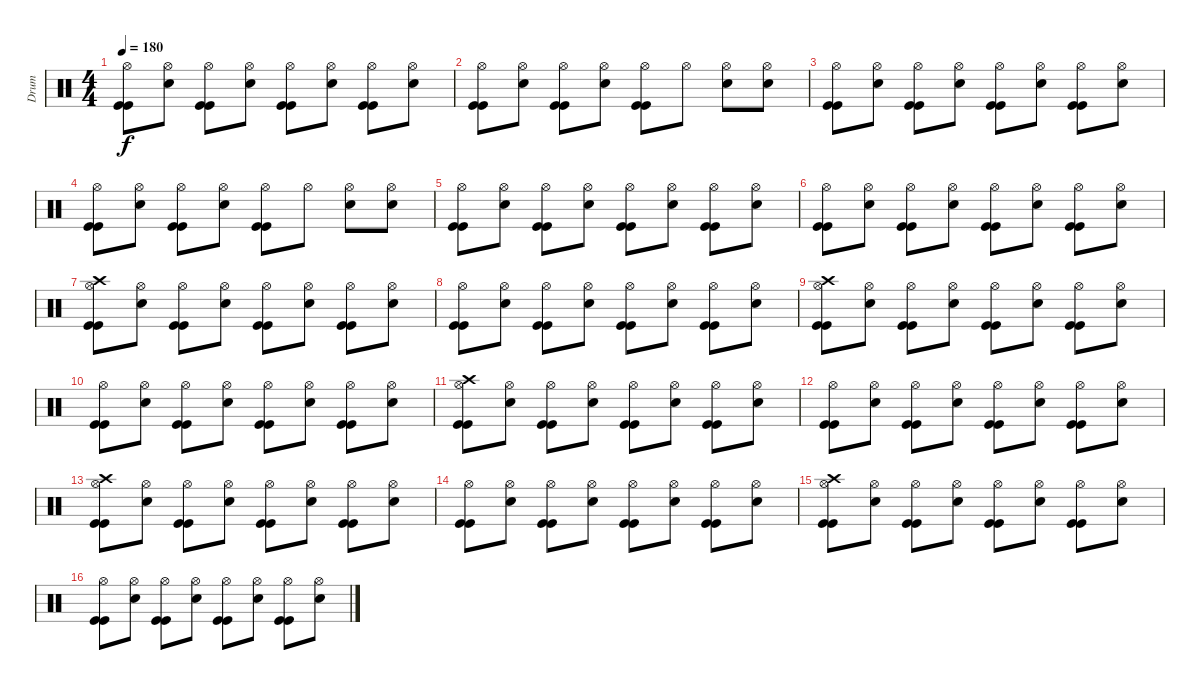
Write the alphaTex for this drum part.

\track ("Drum" "Drum") {instrument percussion}
\staff {score}
\articulation defaults
\ts (4 4)
\tempo 180
\clef neutral
\ks c
("Hi-Hat (open)" "Kick (hit)" "Kick (hit)").8{dy f} ("Hi-Hat (open)" "Electric Snare (hit)").8 ("Hi-Hat (open)" "Kick (hit)" "Kick (hit)").8 ("Hi-Hat (open)" "Electric Snare (hit)").8 ("Hi-Hat (open)" "Kick (hit)" "Kick (hit)").8 ("Hi-Hat (open)" "Electric Snare (hit)").8 ("Hi-Hat (open)" "Kick (hit)" "Kick (hit)").8 ("Hi-Hat (open)" "Electric Snare (hit)").8 |
("Hi-Hat (open)" "Kick (hit)" "Kick (hit)").8 ("Hi-Hat (open)" "Electric Snare (hit)").8 ("Hi-Hat (open)" "Kick (hit)" "Kick (hit)").8 ("Hi-Hat (open)" "Electric Snare (hit)").8 ("Hi-Hat (open)" "Kick (hit)" "Kick (hit)").8 "Hi-Hat (open)".8 ("Hi-Hat (open)" "Electric Snare (hit)").8 ("Hi-Hat (open)" "Electric Snare (hit)").8 |
("Hi-Hat (open)" "Kick (hit)" "Kick (hit)").8 ("Hi-Hat (open)" "Electric Snare (hit)").8 ("Hi-Hat (open)" "Kick (hit)" "Kick (hit)").8 ("Hi-Hat (open)" "Electric Snare (hit)").8 ("Hi-Hat (open)" "Kick (hit)" "Kick (hit)").8 ("Hi-Hat (open)" "Electric Snare (hit)").8 ("Hi-Hat (open)" "Kick (hit)" "Kick (hit)").8 ("Hi-Hat (open)" "Electric Snare (hit)").8 |
("Hi-Hat (open)" "Kick (hit)" "Kick (hit)").8 ("Hi-Hat (open)" "Electric Snare (hit)").8 ("Hi-Hat (open)" "Kick (hit)" "Kick (hit)").8 ("Hi-Hat (open)" "Electric Snare (hit)").8 ("Hi-Hat (open)" "Kick (hit)" "Kick (hit)").8 "Hi-Hat (open)".8 ("Hi-Hat (open)" "Electric Snare (hit)").8 ("Hi-Hat (open)" "Electric Snare (hit)").8 |
("Hi-Hat (open)" "Kick (hit)" "Kick (hit)").8 ("Hi-Hat (open)" "Electric Snare (hit)").8 ("Hi-Hat (open)" "Kick (hit)" "Kick (hit)").8 ("Hi-Hat (open)" "Electric Snare (hit)").8 ("Hi-Hat (open)" "Kick (hit)" "Kick (hit)").8 ("Hi-Hat (open)" "Electric Snare (hit)").8 ("Hi-Hat (open)" "Kick (hit)" "Kick (hit)").8 ("Hi-Hat (open)" "Electric Snare (hit)").8 |
("Hi-Hat (open)" "Kick (hit)" "Kick (hit)").8 ("Hi-Hat (open)" "Electric Snare (hit)").8 ("Hi-Hat (open)" "Kick (hit)" "Kick (hit)").8 ("Hi-Hat (open)" "Electric Snare (hit)").8 ("Hi-Hat (open)" "Kick (hit)" "Kick (hit)").8 ("Hi-Hat (open)" "Electric Snare (hit)").8 ("Hi-Hat (open)" "Kick (hit)" "Kick (hit)").8 ("Hi-Hat (open)" "Electric Snare (hit)").8 |
("Hi-Hat (open)" "Kick (hit)" "Kick (hit)" "Crash high (hit)").8 ("Hi-Hat (open)" "Electric Snare (hit)").8 ("Hi-Hat (open)" "Kick (hit)" "Kick (hit)").8 ("Hi-Hat (open)" "Electric Snare (hit)").8 ("Hi-Hat (open)" "Kick (hit)" "Kick (hit)").8 ("Hi-Hat (open)" "Electric Snare (hit)").8 ("Hi-Hat (open)" "Kick (hit)" "Kick (hit)").8 ("Hi-Hat (open)" "Electric Snare (hit)").8 |
("Hi-Hat (open)" "Kick (hit)" "Kick (hit)").8 ("Hi-Hat (open)" "Electric Snare (hit)").8 ("Hi-Hat (open)" "Kick (hit)" "Kick (hit)").8 ("Hi-Hat (open)" "Electric Snare (hit)").8 ("Hi-Hat (open)" "Kick (hit)" "Kick (hit)").8 ("Hi-Hat (open)" "Electric Snare (hit)").8 ("Hi-Hat (open)" "Kick (hit)" "Kick (hit)").8 ("Hi-Hat (open)" "Electric Snare (hit)").8 |
("Hi-Hat (open)" "Kick (hit)" "Kick (hit)" "Crash high (hit)").8 ("Hi-Hat (open)" "Electric Snare (hit)").8 ("Hi-Hat (open)" "Kick (hit)" "Kick (hit)").8 ("Hi-Hat (open)" "Electric Snare (hit)").8 ("Hi-Hat (open)" "Kick (hit)" "Kick (hit)").8 ("Hi-Hat (open)" "Electric Snare (hit)").8 ("Hi-Hat (open)" "Kick (hit)" "Kick (hit)").8 ("Hi-Hat (open)" "Electric Snare (hit)").8 |
("Hi-Hat (open)" "Kick (hit)" "Kick (hit)").8 ("Hi-Hat (open)" "Electric Snare (hit)").8 ("Hi-Hat (open)" "Kick (hit)" "Kick (hit)").8 ("Hi-Hat (open)" "Electric Snare (hit)").8 ("Hi-Hat (open)" "Kick (hit)" "Kick (hit)").8 ("Hi-Hat (open)" "Electric Snare (hit)").8 ("Hi-Hat (open)" "Kick (hit)" "Kick (hit)").8 ("Hi-Hat (open)" "Electric Snare (hit)").8 |
("Hi-Hat (open)" "Kick (hit)" "Kick (hit)" "Crash high (hit)").8 ("Hi-Hat (open)" "Electric Snare (hit)").8 ("Hi-Hat (open)" "Kick (hit)" "Kick (hit)").8 ("Hi-Hat (open)" "Electric Snare (hit)").8 ("Hi-Hat (open)" "Kick (hit)" "Kick (hit)").8 ("Hi-Hat (open)" "Electric Snare (hit)").8 ("Hi-Hat (open)" "Kick (hit)" "Kick (hit)").8 ("Hi-Hat (open)" "Electric Snare (hit)").8 |
("Hi-Hat (open)" "Kick (hit)" "Kick (hit)").8 ("Hi-Hat (open)" "Electric Snare (hit)").8 ("Hi-Hat (open)" "Kick (hit)" "Kick (hit)").8 ("Hi-Hat (open)" "Electric Snare (hit)").8 ("Hi-Hat (open)" "Kick (hit)" "Kick (hit)").8 ("Hi-Hat (open)" "Electric Snare (hit)").8 ("Hi-Hat (open)" "Kick (hit)" "Kick (hit)").8 ("Hi-Hat (open)" "Electric Snare (hit)").8 |
("Hi-Hat (open)" "Kick (hit)" "Kick (hit)" "Crash high (hit)").8 ("Hi-Hat (open)" "Electric Snare (hit)").8 ("Hi-Hat (open)" "Kick (hit)" "Kick (hit)").8 ("Hi-Hat (open)" "Electric Snare (hit)").8 ("Hi-Hat (open)" "Kick (hit)" "Kick (hit)").8 ("Hi-Hat (open)" "Electric Snare (hit)").8 ("Hi-Hat (open)" "Kick (hit)" "Kick (hit)").8 ("Hi-Hat (open)" "Electric Snare (hit)").8 |
("Hi-Hat (open)" "Kick (hit)" "Kick (hit)").8 ("Hi-Hat (open)" "Electric Snare (hit)").8 ("Hi-Hat (open)" "Kick (hit)" "Kick (hit)").8 ("Hi-Hat (open)" "Electric Snare (hit)").8 ("Hi-Hat (open)" "Kick (hit)" "Kick (hit)").8 ("Hi-Hat (open)" "Electric Snare (hit)").8 ("Hi-Hat (open)" "Kick (hit)" "Kick (hit)").8 ("Hi-Hat (open)" "Electric Snare (hit)").8 |
("Hi-Hat (open)" "Kick (hit)" "Kick (hit)" "Crash high (hit)").8 ("Hi-Hat (open)" "Electric Snare (hit)").8 ("Hi-Hat (open)" "Kick (hit)" "Kick (hit)").8 ("Hi-Hat (open)" "Electric Snare (hit)").8 ("Hi-Hat (open)" "Kick (hit)" "Kick (hit)").8 ("Hi-Hat (open)" "Electric Snare (hit)").8 ("Hi-Hat (open)" "Kick (hit)" "Kick (hit)").8 ("Hi-Hat (open)" "Electric Snare (hit)").8 |
("Hi-Hat (open)" "Kick (hit)" "Kick (hit)").8 ("Hi-Hat (open)" "Electric Snare (hit)").8 ("Hi-Hat (open)" "Kick (hit)" "Kick (hit)").8 ("Hi-Hat (open)" "Electric Snare (hit)").8 ("Hi-Hat (open)" "Kick (hit)" "Kick (hit)").8 ("Hi-Hat (open)" "Electric Snare (hit)").8 ("Hi-Hat (open)" "Kick (hit)" "Kick (hit)").8 ("Hi-Hat (open)" "Electric Snare (hit)").8
